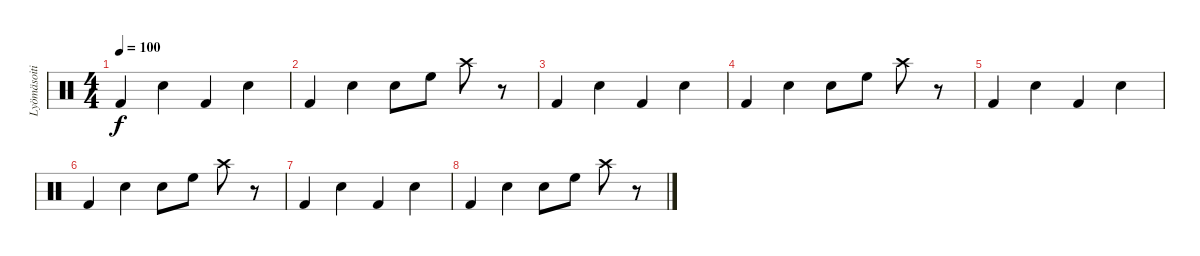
\track ("Lyömäsoitin" "Lyömäsoiti") {instrument percussion}
\staff {score}
\articulation defaults
\ts (4 4)
\tempo 100
\clef neutral
\ks c "Kick (hit) 2".4{dy f} "Snare (hit) 2".4 "Kick (hit) 2".4 "Snare (hit) 2".4
|
"Kick (hit) 2".4 "Snare (hit) 2".4 "Snare (hit) 2".8 "High Floor Tom (hit)".8 "Crash high (hit)".8 r.8 |
"Kick (hit) 2".4 "Snare (hit) 2".4 "Kick (hit) 2".4 "Snare (hit) 2".4 |
"Kick (hit) 2".4 "Snare (hit) 2".4 "Snare (hit) 2".8 "High Floor Tom (hit)".8 "Crash high (hit)".8 r.8 |
"Kick (hit) 2".4 "Snare (hit) 2".4 "Kick (hit) 2".4 "Snare (hit) 2".4 |
"Kick (hit) 2".4 "Snare (hit) 2".4 "Snare (hit) 2".8 "High Floor Tom (hit)".8 "Crash high (hit)".8 r.8 |
"Kick (hit) 2".4 "Snare (hit) 2".4 "Kick (hit) 2".4 "Snare (hit) 2".4 |
"Kick (hit) 2".4 "Snare (hit) 2".4 "Snare (hit) 2".8 "High Floor Tom (hit)".8 "Crash high (hit)".8 r.8
